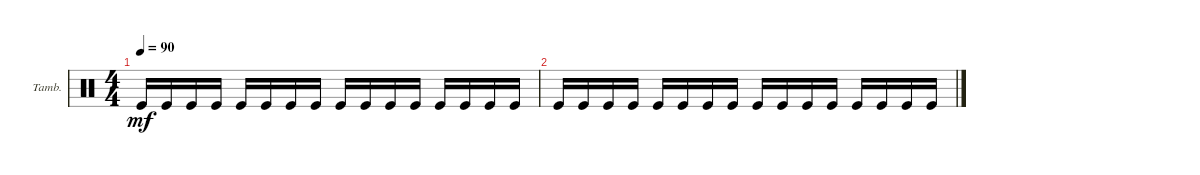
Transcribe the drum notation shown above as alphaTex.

\defaultSystemsLayout 4
\bracketExtendMode groupsimilarinstruments
\firstSystemTrackNameOrientation horizontal
\otherSystemsTrackNameOrientation horizontal
\track ("Tambourine" "Tamb.") {instrument percussion}
\staff {score}
\articulation defaults
\ts (4 4)
\tempo 90
\clef neutral
\ks c "Kick (hit)".16{dy mf} "Kick (hit)".16 "Kick (hit)".16 "Kick (hit)".16 "Kick (hit)".16 "Kick (hit)".16 "Kick (hit)".16 "Kick (hit)".16 "Kick (hit)".16 "Kick (hit)".16 "Kick (hit)".16 "Kick (hit)".16 "Kick (hit)".16 "Kick (hit)".16 "Kick (hit)".16 "Kick (hit)".16
|
"Kick (hit)".16 "Kick (hit)".16 "Kick (hit)".16 "Kick (hit)".16 "Kick (hit)".16 "Kick (hit)".16 "Kick (hit)".16 "Kick (hit)".16 "Kick (hit)".16 "Kick (hit)".16 "Kick (hit)".16 "Kick (hit)".16 "Kick (hit)".16 "Kick (hit)".16 "Kick (hit)".16 "Kick (hit)".16
